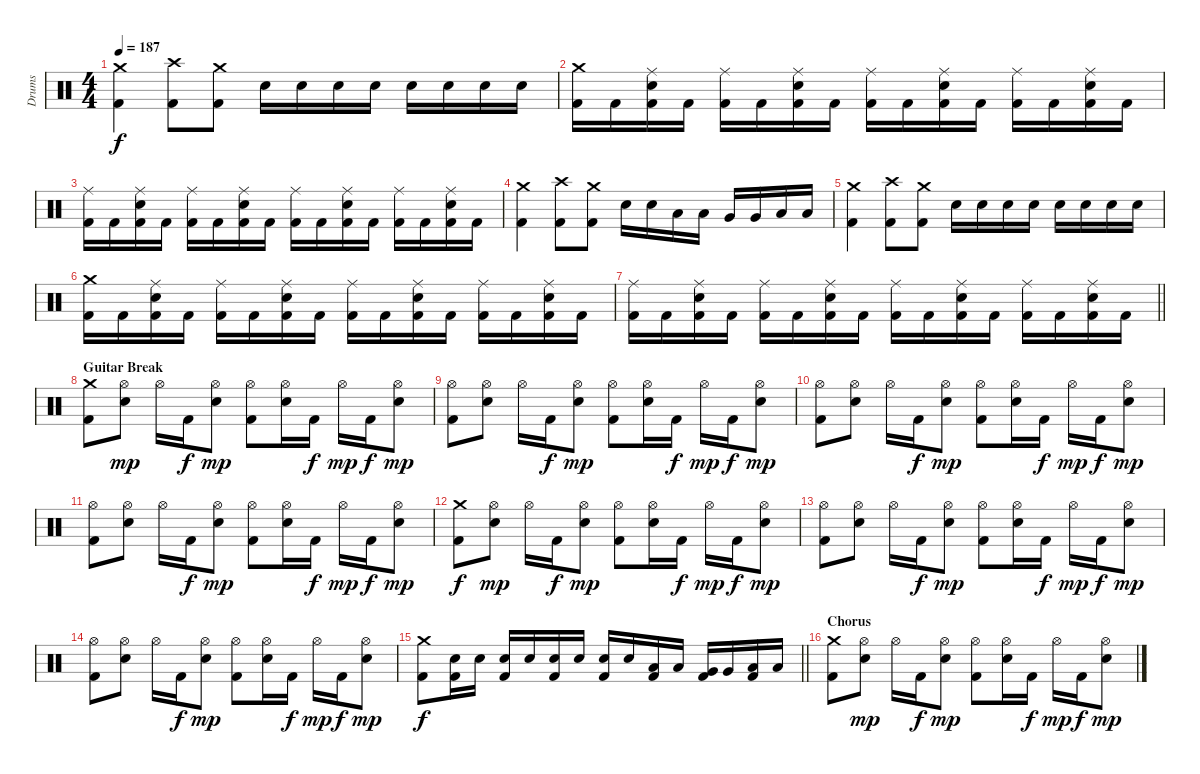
\track ("Drums" "Drums") {instrument percussion}
\staff {score}
\articulation defaults
\ts (4 4)
\tempo 187
\clef neutral
\ks c
("Crash medium (hit)" "Kick (hit) 2").4{dy f} ("Crash high (hit)" "Kick (hit) 2").8 ("Crash medium (hit)" "Kick (hit) 2").8 "Snare (hit) 2".16 "Snare (hit) 2".16 "Snare (hit) 2".16 "Snare (hit) 2".16 "Snare (hit) 2".16 "Snare (hit) 2".16 "Snare (hit) 2".16 "Snare (hit) 2".16 |
("Crash medium (hit)" "Kick (hit) 2").16 "Kick (hit) 2".16 ("Ride (middle)" "Snare (hit) 2" "Kick (hit) 2").16 "Kick (hit) 2".16 ("Ride (middle)" "Kick (hit) 2").16 "Kick (hit) 2".16 ("Ride (middle)" "Snare (hit) 2" "Kick (hit) 2").16 "Kick (hit) 2".16 ("Ride (middle)" "Kick (hit) 2").16 "Kick (hit) 2".16 ("Ride (middle)" "Snare (hit) 2" "Kick (hit) 2").16 "Kick (hit) 2".16 ("Ride (middle)" "Kick (hit) 2").16 "Kick (hit) 2".16 ("Ride (middle)" "Snare (hit) 2" "Kick (hit) 2").16 "Kick (hit) 2".16 |
("Ride (middle)" "Kick (hit) 2").16 "Kick (hit) 2".16 ("Ride (middle)" "Snare (hit) 2" "Kick (hit) 2").16 "Kick (hit) 2".16 ("Ride (middle)" "Kick (hit) 2").16 "Kick (hit) 2".16 ("Ride (middle)" "Snare (hit) 2" "Kick (hit) 2").16 "Kick (hit) 2".16 ("Ride (middle)" "Kick (hit) 2").16 "Kick (hit) 2".16 ("Ride (middle)" "Snare (hit) 2" "Kick (hit) 2").16 "Kick (hit) 2".16 ("Ride (middle)" "Kick (hit) 2").16 "Kick (hit) 2".16 ("Ride (middle)" "Snare (hit) 2" "Kick (hit) 2").16 "Kick (hit) 2".16 |
("Crash medium (hit)" "Kick (hit) 2").4 ("Crash high (hit)" "Kick (hit) 2").8 ("Crash medium (hit)" "Kick (hit) 2").8 "Snare (hit) 2".16 "Snare (hit) 2".16 "Low Tom (hit)".16 "Low Tom (hit)".16 "Very Low Tom (hit)".16 "Very Low Tom (hit)".16 "Low Floor Tom (hit)".16 "Low Floor Tom (hit)".16 |
("Crash medium (hit)" "Kick (hit) 2").4 ("Crash high (hit)" "Kick (hit) 2").8 ("Crash medium (hit)" "Kick (hit) 2").8 "Snare (hit) 2".16 "Snare (hit) 2".16 "Snare (hit) 2".16 "Snare (hit) 2".16 "Snare (hit) 2".16 "Snare (hit) 2".16 "Snare (hit) 2".16 "Snare (hit) 2".16 |
("Crash medium (hit)" "Kick (hit) 2").16 "Kick (hit) 2".16 ("Ride (middle)" "Snare (hit) 2" "Kick (hit) 2").16 "Kick (hit) 2".16 ("Ride (middle)" "Kick (hit) 2").16 "Kick (hit) 2".16 ("Ride (middle)" "Snare (hit) 2" "Kick (hit) 2").16 "Kick (hit) 2".16 ("Ride (middle)" "Kick (hit) 2").16 "Kick (hit) 2".16 ("Ride (middle)" "Snare (hit) 2" "Kick (hit) 2").16 "Kick (hit) 2".16 ("Ride (middle)" "Kick (hit) 2").16 "Kick (hit) 2".16 ("Ride (middle)" "Snare (hit) 2" "Kick (hit) 2").16 "Kick (hit) 2".16 |
\barLineRight lightlight
("Ride (middle)" "Kick (hit) 2").16 "Kick (hit) 2".16 ("Ride (middle)" "Snare (hit) 2" "Kick (hit) 2").16 "Kick (hit) 2".16 ("Ride (middle)" "Kick (hit) 2").16 "Kick (hit) 2".16 ("Ride (middle)" "Snare (hit) 2" "Kick (hit) 2").16 "Kick (hit) 2".16 ("Ride (middle)" "Kick (hit) 2").16 "Kick (hit) 2".16 ("Ride (middle)" "Snare (hit) 2" "Kick (hit) 2").16 "Kick (hit) 2".16 ("Ride (middle)" "Kick (hit) 2").16 "Kick (hit) 2".16 ("Ride (middle)" "Snare (hit) 2" "Kick (hit) 2").16 "Kick (hit) 2".16 |
\section ("" "Guitar Break")
("Crash medium (hit)" "Kick (hit) 2").8 ("Hi-Hat (open)" "Snare (hit) 2").8{dy mp} "Hi-Hat (open)".16 "Kick (hit) 2".16{dy f} ("Hi-Hat (open)" "Snare (hit) 2").8{dy mp} ("Hi-Hat (open)" "Kick (hit) 2").8 ("Hi-Hat (open)" "Snare (hit) 2").16 "Kick (hit) 2".16{dy f} "Hi-Hat (open)".16{dy mp} "Kick (hit) 2".16{dy f} ("Hi-Hat (open)" "Snare (hit) 2").8{dy mp} |
("Hi-Hat (open)" "Kick (hit) 2").8 ("Hi-Hat (open)" "Snare (hit) 2").8 "Hi-Hat (open)".16 "Kick (hit) 2".16{dy f} ("Hi-Hat (open)" "Snare (hit) 2").8{dy mp} ("Hi-Hat (open)" "Kick (hit) 2").8 ("Hi-Hat (open)" "Snare (hit) 2").16 "Kick (hit) 2".16{dy f} "Hi-Hat (open)".16{dy mp} "Kick (hit) 2".16{dy f} ("Hi-Hat (open)" "Snare (hit) 2").8{dy mp} |
("Hi-Hat (open)" "Kick (hit) 2").8 ("Hi-Hat (open)" "Snare (hit) 2").8 "Hi-Hat (open)".16 "Kick (hit) 2".16{dy f} ("Hi-Hat (open)" "Snare (hit) 2").8{dy mp} ("Hi-Hat (open)" "Kick (hit) 2").8 ("Hi-Hat (open)" "Snare (hit) 2").16 "Kick (hit) 2".16{dy f} "Hi-Hat (open)".16{dy mp} "Kick (hit) 2".16{dy f} ("Hi-Hat (open)" "Snare (hit) 2").8{dy mp} |
("Hi-Hat (open)" "Kick (hit) 2").8 ("Hi-Hat (open)" "Snare (hit) 2").8 "Hi-Hat (open)".16 "Kick (hit) 2".16{dy f} ("Hi-Hat (open)" "Snare (hit) 2").8{dy mp} ("Hi-Hat (open)" "Kick (hit) 2").8 ("Hi-Hat (open)" "Snare (hit) 2").16 "Kick (hit) 2".16{dy f} "Hi-Hat (open)".16{dy mp} "Kick (hit) 2".16{dy f} ("Hi-Hat (open)" "Snare (hit) 2").8{dy mp} |
("Crash medium (hit)" "Kick (hit) 2").8{dy f} ("Hi-Hat (open)" "Snare (hit) 2").8{dy mp} "Hi-Hat (open)".16 "Kick (hit) 2".16{dy f} ("Hi-Hat (open)" "Snare (hit) 2").8{dy mp} ("Hi-Hat (open)" "Kick (hit) 2").8 ("Hi-Hat (open)" "Snare (hit) 2").16 "Kick (hit) 2".16{dy f} "Hi-Hat (open)".16{dy mp} "Kick (hit) 2".16{dy f} ("Hi-Hat (open)" "Snare (hit) 2").8{dy mp} |
("Hi-Hat (open)" "Kick (hit) 2").8 ("Hi-Hat (open)" "Snare (hit) 2").8 "Hi-Hat (open)".16 "Kick (hit) 2".16{dy f} ("Hi-Hat (open)" "Snare (hit) 2").8{dy mp} ("Hi-Hat (open)" "Kick (hit) 2").8 ("Hi-Hat (open)" "Snare (hit) 2").16 "Kick (hit) 2".16{dy f} "Hi-Hat (open)".16{dy mp} "Kick (hit) 2".16{dy f} ("Hi-Hat (open)" "Snare (hit) 2").8{dy mp} |
("Hi-Hat (open)" "Kick (hit) 2").8 ("Hi-Hat (open)" "Snare (hit) 2").8 "Hi-Hat (open)".16 "Kick (hit) 2".16{dy f} ("Hi-Hat (open)" "Snare (hit) 2").8{dy mp} ("Hi-Hat (open)" "Kick (hit) 2").8 ("Hi-Hat (open)" "Snare (hit) 2").16 "Kick (hit) 2".16{dy f} "Hi-Hat (open)".16{dy mp} "Kick (hit) 2".16{dy f} ("Hi-Hat (open)" "Snare (hit) 2").8{dy mp} |
\barLineRight lightlight
("Crash medium (hit)" "Kick (hit) 2").8{dy f} ("Snare (hit) 2" "Kick (hit) 2").16 "Snare (hit) 2".16 ("Snare (hit) 2" "Kick (hit) 2").16 "Snare (hit) 2".16 ("Snare (hit) 2" "Kick (hit) 2").16 "Snare (hit) 2".16 ("Snare (hit) 2" "Kick (hit) 2").16 "Snare (hit) 2".16 ("Low Tom (hit)" "Kick (hit) 2").16 "Low Tom (hit)".16 ("Very Low Tom (hit)" "Kick (hit) 2").16 "Very Low Tom (hit)".16 ("Low Floor Tom (hit)" "Kick (hit) 2").16 "Low Floor Tom (hit)".16 |
\section ("" "Chorus")
("Crash medium (hit)" "Kick (hit) 2").8 ("Hi-Hat (open)" "Snare (hit) 2").8{dy mp} "Hi-Hat (open)".16 "Kick (hit) 2".16{dy f} ("Hi-Hat (open)" "Snare (hit) 2").8{dy mp} ("Hi-Hat (open)" "Kick (hit) 2").8 ("Hi-Hat (open)" "Snare (hit) 2").16 "Kick (hit) 2".16{dy f} "Hi-Hat (open)".16{dy mp} "Kick (hit) 2".16{dy f} ("Hi-Hat (open)" "Snare (hit) 2").8{dy mp}
